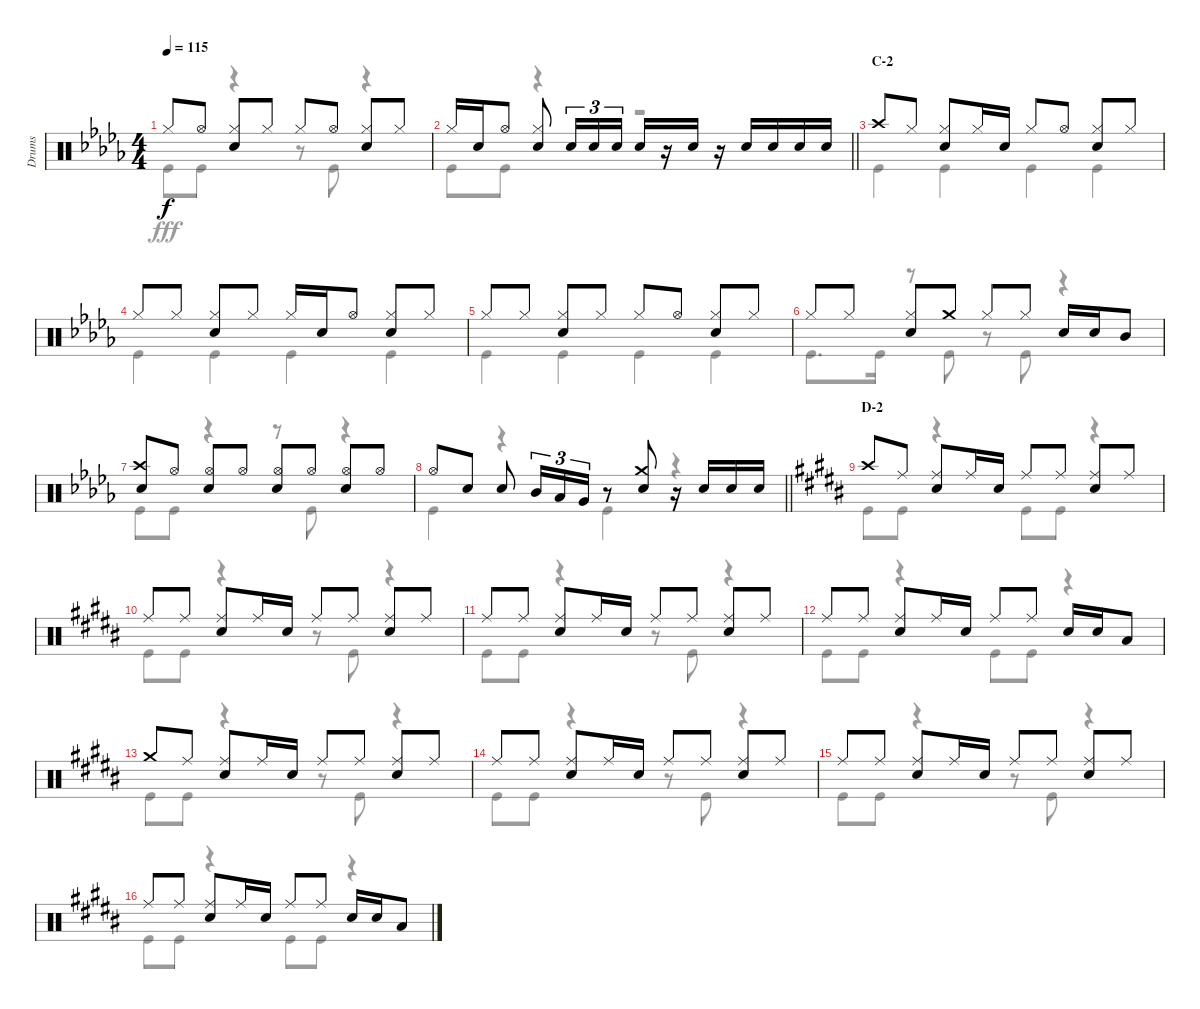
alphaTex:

\track ("Drums" "Drums") {instrument percussion}
\staff {score}
\articulation defaults
\voice
\ts (4 4)
\tempo 115
\clef neutral
\ks db "Hi-Hat (closed)".8{dy f} "Hi-Hat (open)".8
("Hi-Hat (closed)" "Snare (hit) 2").8 "Hi-Hat (closed)".8 "Hi-Hat (closed)".8 "Hi-Hat (open)".8 ("Hi-Hat (closed)" "Snare (hit) 2").8 "Hi-Hat (closed)".8 |
\barLineRight lightlight "Hi-Hat (closed)".16 "Snare (hit) 2".16 "Hi-Hat (open)".8
("Hi-Hat (closed)" "Snare (hit) 2").8 "Snare (hit) 2".16{tu (3 2)} "Snare (hit) 2".16{tu (3 2)} "Snare (hit) 2".16{tu (3 2)} "Snare (hit) 2".16 r.16 "Snare (hit) 2".16 r.16 "Snare (hit) 2".16 "Snare (hit) 2".16 "Snare (hit) 2".16 "Snare (hit) 2".16 |
\section ("" "C-2")
"Crash high (hit)".8 "Hi-Hat (closed)".8 ("Hi-Hat (closed)" "Snare (hit) 2").8 "Hi-Hat (closed)".16 "Snare (hit) 2".16 "Hi-Hat (closed)".8 "Hi-Hat (open)".8 ("Hi-Hat (closed)" "Snare (hit) 2").8 "Hi-Hat (closed)".8 |
"Hi-Hat (closed)".8 "Hi-Hat (closed)".8 ("Hi-Hat (closed)" "Snare (hit) 2").8 "Hi-Hat (closed)".8 "Hi-Hat (closed)".16 "Snare (hit) 2".16 "Hi-Hat (open)".8 ("Hi-Hat (closed)" "Snare (hit) 2").8 "Hi-Hat (closed)".8 |
"Hi-Hat (closed)".8 "Hi-Hat (closed)".8 ("Hi-Hat (closed)" "Snare (hit) 2").8 "Hi-Hat (closed)".8 "Hi-Hat (closed)".8 "Hi-Hat (open)".8 ("Hi-Hat (closed)" "Snare (hit) 2").8 "Hi-Hat (closed)".8 |
"Hi-Hat (closed)".8 "Hi-Hat (closed)".8 ("Hi-Hat (closed)" "Snare (hit) 2").8 "Crash medium (hit)".8 "Hi-Hat (closed)".8 "Hi-Hat (closed)".8 "Snare (hit) 2".16 "Snare (hit) 2".16 "Mid Tom (hit)".8 |
("Crash high (hit)" "Snare (hit) 2").8 "Hi-Hat (open)".8 ("Hi-Hat (open)" "Snare (hit) 2").8 "Hi-Hat (open)".8 ("Hi-Hat (open)" "Snare (hit) 2").8 "Hi-Hat (open)".8 ("Hi-Hat (open)" "Snare (hit) 2").8 "Hi-Hat (open)".8 |
\barLineRight lightlight "Hi-Hat (open)".8 "Snare (hit) 2".8 "Snare (hit) 2".8 "Mid Tom (hit)".16{tu (3 2)} "Low Tom (hit)".16{tu (3 2)} "Very Low Tom (hit)".16{tu (3 2)}
r.8 ("Crash medium (hit)" "Snare (hit) 2").8 r.16 "Snare (hit) 2".16 "Snare (hit) 2".16 "Snare (hit) 2".16 |
\section ("" "D-2")
\ks b "Crash high (hit)".8 "Ride (middle)".8
("Ride (middle)" "Snare (hit) 2").8 "Ride (middle)".16 "Snare (hit) 2".16 "Ride (middle)".8 "Ride (middle)".8 ("Ride (middle)" "Snare (hit) 2").8 "Ride (middle)".8 |
"Ride (middle)".8 "Ride (middle)".8 ("Ride (middle)" "Snare (hit) 2").8 "Ride (middle)".16 "Snare (hit) 2".16 "Ride (middle)".8 "Ride (middle)".8 ("Ride (middle)" "Snare (hit) 2").8 "Ride (middle)".8 |
"Ride (middle)".8 "Ride (middle)".8 ("Ride (middle)" "Snare (hit) 2").8 "Ride (middle)".16 "Snare (hit) 2".16 "Ride (middle)".8 "Ride (middle)".8 ("Ride (middle)" "Snare (hit) 2").8 "Ride (middle)".8 |
"Ride (middle)".8 "Ride (middle)".8 ("Ride (middle)" "Snare (hit) 2").8 "Ride (middle)".16 "Snare (hit) 2".16 "Ride (middle)".8 "Ride (middle)".8 "Snare (hit) 2".16 "Snare (hit) 2".16 "Low Tom (hit)".8 |
"Crash medium (hit)".8 "Ride (middle)".8 ("Ride (middle)" "Snare (hit) 2").8 "Ride (middle)".16 "Snare (hit) 2".16 "Ride (middle)".8 "Ride (middle)".8 ("Ride (middle)" "Snare (hit) 2").8 "Ride (middle)".8 |
"Ride (middle)".8 "Ride (middle)".8 ("Ride (middle)" "Snare (hit) 2").8 "Ride (middle)".16 "Snare (hit) 2".16 "Ride (middle)".8 "Ride (middle)".8 ("Ride (middle)" "Snare (hit) 2").8 "Ride (middle)".8 |
"Ride (middle)".8 "Ride (middle)".8 ("Ride (middle)" "Snare (hit) 2").8 "Ride (middle)".16 "Snare (hit) 2".16 "Ride (middle)".8 "Ride (middle)".8 ("Ride (middle)" "Snare (hit) 2").8 "Ride (middle)".8 |
"Ride (middle)".8 "Ride (middle)".8 ("Ride (middle)" "Snare (hit) 2").8 "Ride (middle)".16 "Snare (hit) 2".16 "Ride (middle)".8 "Ride (middle)".8 "Snare (hit) 2".16 "Snare (hit) 2".16 "Low Tom (hit)".8
\voice
\clef neutral
\ottava regular
\simile none
\ks db "Kick (hit)".8{dy fff} "Kick (hit)".8
r.4 r.8 "Kick (hit)".8 r.4 |
\barLineRight lightlight "Kick (hit)".8 "Kick (hit)".8
r.4 r.2 |
"Kick (hit)".4 "Kick (hit)".4 "Kick (hit)".4 "Kick (hit)".4 |
"Kick (hit)".4 "Kick (hit)".4 "Kick (hit)".4 "Kick (hit)".4 |
"Kick (hit)".4 "Kick (hit)".4 "Kick (hit)".4 "Kick (hit)".4 |
"Kick (hit)".8{d} "Kick (hit)".16 r.8 "Kick (hit)".8 r.8 "Kick (hit)".8 r.4 |
"Kick (hit)".8 "Kick (hit)".8 r.4 r.8 "Kick (hit)".8 r.4 |
\barLineRight lightlight "Kick (hit)".4
r.4 "Kick (hit)".4 r.4 |
\ks b "Kick (hit)".8 "Kick (hit)".8
r.4 "Kick (hit)".8 "Kick (hit)".8 r.4 |
"Kick (hit)".8 "Kick (hit)".8 r.4 r.8 "Kick (hit)".8 r.4 |
"Kick (hit)".8 "Kick (hit)".8 r.4 r.8 "Kick (hit)".8 r.4 |
"Kick (hit)".8 "Kick (hit)".8 r.4 "Kick (hit)".8 "Kick (hit)".8 r.4 |
"Kick (hit)".8 "Kick (hit)".8 r.4 r.8 "Kick (hit)".8 r.4 |
"Kick (hit)".8 "Kick (hit)".8 r.4 r.8 "Kick (hit)".8 r.4 |
"Kick (hit)".8 "Kick (hit)".8 r.4 r.8 "Kick (hit)".8 r.4 |
"Kick (hit)".8 "Kick (hit)".8 r.4 "Kick (hit)".8 "Kick (hit)".8 r.4
